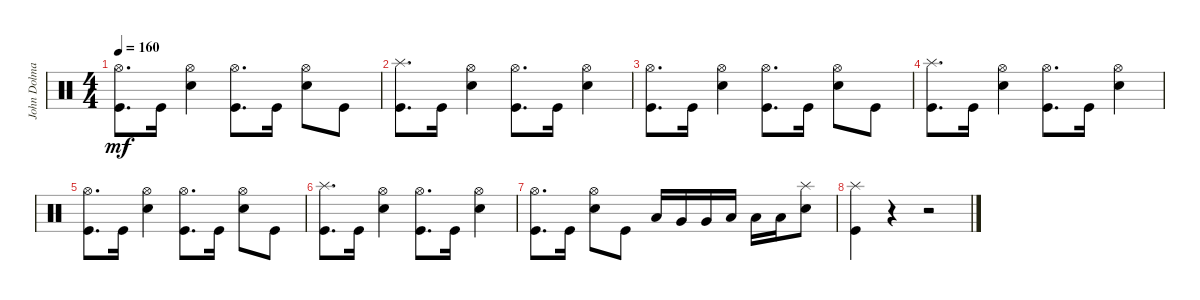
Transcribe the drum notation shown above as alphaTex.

\track ("John Dolmayan" "John Dolma") {instrument percussion}
\staff {score}
\articulation defaults
\ts (4 4)
\tempo 160
\clef neutral
\ks c
("Kick (hit)" "Hi-Hat (open)").8{d dy mf} "Kick (hit)".16 ("Snare (hit) 2" "Hi-Hat (open)").4 ("Kick (hit)" "Hi-Hat (open)").8{d} "Kick (hit)".16 ("Snare (hit) 2" "Hi-Hat (open)").8 "Kick (hit)".8 |
("Kick (hit)" "Splash (hit)").8{d} "Kick (hit)".16 ("Snare (hit) 2" "Hi-Hat (open)").4 ("Kick (hit)" "Hi-Hat (open)").8{d} "Kick (hit)".16 ("Snare (hit) 2" "Hi-Hat (open)").4 |
("Kick (hit)" "Hi-Hat (open)").8{d} "Kick (hit)".16 ("Snare (hit) 2" "Hi-Hat (open)").4 ("Kick (hit)" "Hi-Hat (open)").8{d} "Kick (hit)".16 ("Snare (hit) 2" "Hi-Hat (open)").8 "Kick (hit)".8 |
("Kick (hit)" "Splash (hit)").8{d} "Kick (hit)".16 ("Snare (hit) 2" "Hi-Hat (open)").4 ("Kick (hit)" "Hi-Hat (open)").8{d} "Kick (hit)".16 ("Snare (hit) 2" "Hi-Hat (open)").4 |
("Kick (hit)" "Hi-Hat (open)").8{d} "Kick (hit)".16 ("Snare (hit) 2" "Hi-Hat (open)").4 ("Kick (hit)" "Hi-Hat (open)").8{d} "Kick (hit)".16 ("Snare (hit) 2" "Hi-Hat (open)").8 "Kick (hit)".8 |
("Kick (hit)" "Splash (hit)").8{d} "Kick (hit)".16 ("Snare (hit) 2" "Hi-Hat (open)").4 ("Kick (hit)" "Hi-Hat (open)").8{d} "Kick (hit)".16 ("Snare (hit) 2" "Hi-Hat (open)").4 |
("Kick (hit)" "Hi-Hat (open)").8{d} "Kick (hit)".16 ("Snare (hit) 2" "Hi-Hat (open)").8 "Kick (hit)".8 "Low Tom (hit)".16 "Very Low Tom (hit)".16 "Very Low Tom (hit)".16 "Low Floor Tom (hit)".16 "Low Floor Tom (hit)".16 "Low Floor Tom (hit)".16 ("Snare (hit) 2" "Splash (hit)").8 |
("Kick (hit)" "Splash (hit)").4 r.4 r.2
